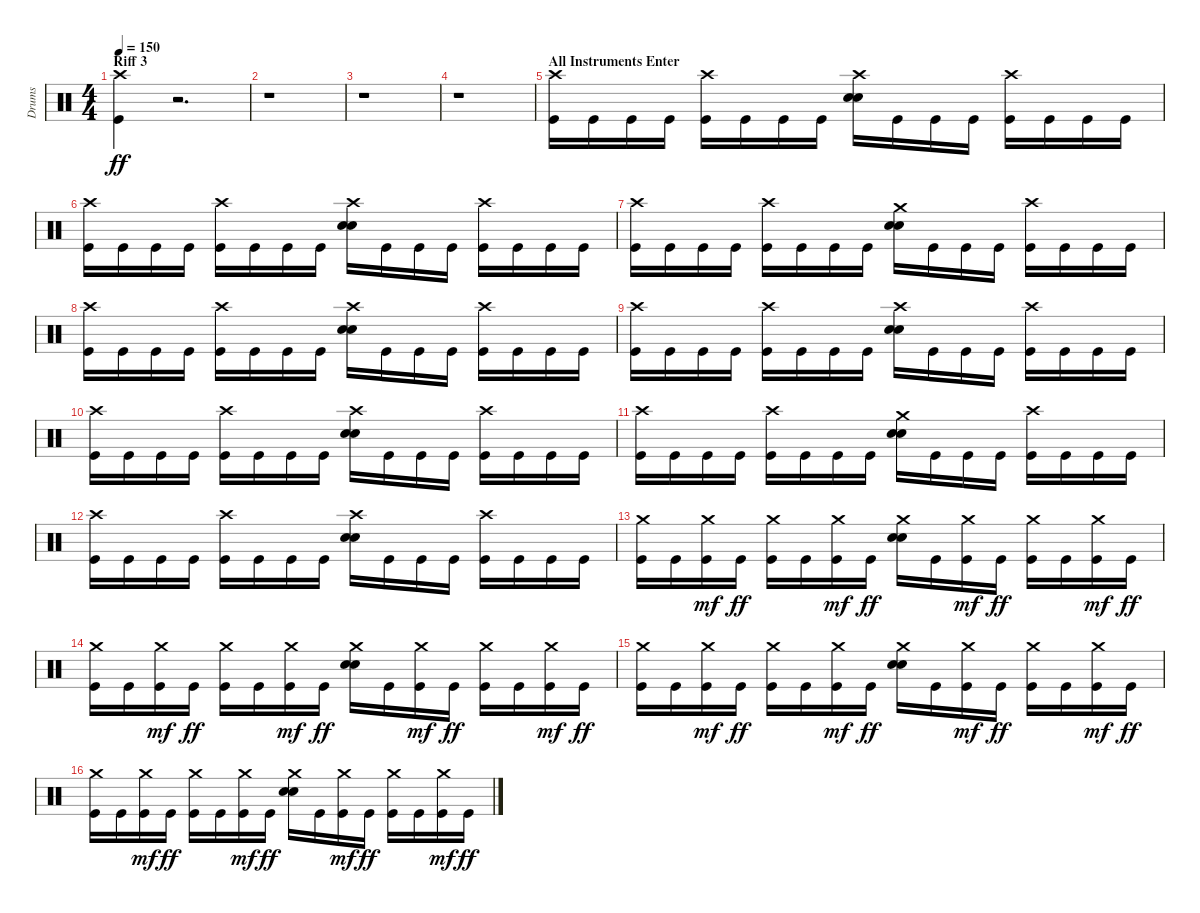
\track ("Drums" "Drums") {instrument percussion}
\staff {score}
\articulation defaults
\ts (4 4)
\section ("" "Riff 3")
\tempo 150
\clef neutral
\ks c
("Kick (hit)" "Crash high (hit)").4{dy ff} r.2{d} |
r.1 |
r.1 |
r.1 |
\section ("" "All Instruments Enter")
("Kick (hit)" "Crash high (hit)").16 "Kick (hit)".16 "Kick (hit)".16 "Kick (hit)".16 ("Kick (hit)" "Crash high (hit)").16 "Kick (hit)".16 "Kick (hit)".16 "Kick (hit)".16 ("Electric Snare (hit)" "Electric Snare (hit)" "Crash high (hit)").16 "Kick (hit)".16 "Kick (hit)".16 "Kick (hit)".16 ("Kick (hit)" "Crash high (hit)").16 "Kick (hit)".16 "Kick (hit)".16 "Kick (hit)".16 |
("Kick (hit)" "Crash high (hit)").16 "Kick (hit)".16 "Kick (hit)".16 "Kick (hit)".16 ("Kick (hit)" "Crash high (hit)").16 "Kick (hit)".16 "Kick (hit)".16 "Kick (hit)".16 ("Electric Snare (hit)" "Electric Snare (hit)" "Crash high (hit)").16 "Kick (hit)".16 "Kick (hit)".16 "Kick (hit)".16 ("Kick (hit)" "Crash high (hit)").16 "Kick (hit)".16 "Kick (hit)".16 "Kick (hit)".16 |
("Kick (hit)" "Crash high (hit)").16 "Kick (hit)".16 "Kick (hit)".16 "Kick (hit)".16 ("Kick (hit)" "Crash high (hit)").16 "Kick (hit)".16 "Kick (hit)".16 "Kick (hit)".16 ("Electric Snare (hit)" "Electric Snare (hit)" "Crash medium (hit)").16 "Kick (hit)".16 "Kick (hit)".16 "Kick (hit)".16 ("Kick (hit)" "Crash high (hit)").16 "Kick (hit)".16 "Kick (hit)".16 "Kick (hit)".16 |
("Kick (hit)" "Crash high (hit)").16 "Kick (hit)".16 "Kick (hit)".16 "Kick (hit)".16 ("Kick (hit)" "Crash high (hit)").16 "Kick (hit)".16 "Kick (hit)".16 "Kick (hit)".16 ("Electric Snare (hit)" "Electric Snare (hit)" "Crash high (hit)").16 "Kick (hit)".16 "Kick (hit)".16 "Kick (hit)".16 ("Kick (hit)" "Crash high (hit)").16 "Kick (hit)".16 "Kick (hit)".16 "Kick (hit)".16 |
("Kick (hit)" "Crash high (hit)").16 "Kick (hit)".16 "Kick (hit)".16 "Kick (hit)".16 ("Kick (hit)" "Crash high (hit)").16 "Kick (hit)".16 "Kick (hit)".16 "Kick (hit)".16 ("Electric Snare (hit)" "Electric Snare (hit)" "Crash high (hit)").16 "Kick (hit)".16 "Kick (hit)".16 "Kick (hit)".16 ("Kick (hit)" "Crash high (hit)").16 "Kick (hit)".16 "Kick (hit)".16 "Kick (hit)".16 |
("Kick (hit)" "Crash high (hit)").16 "Kick (hit)".16 "Kick (hit)".16 "Kick (hit)".16 ("Kick (hit)" "Crash high (hit)").16 "Kick (hit)".16 "Kick (hit)".16 "Kick (hit)".16 ("Electric Snare (hit)" "Electric Snare (hit)" "Crash high (hit)").16 "Kick (hit)".16 "Kick (hit)".16 "Kick (hit)".16 ("Kick (hit)" "Crash high (hit)").16 "Kick (hit)".16 "Kick (hit)".16 "Kick (hit)".16 |
("Kick (hit)" "Crash high (hit)").16 "Kick (hit)".16 "Kick (hit)".16 "Kick (hit)".16 ("Kick (hit)" "Crash high (hit)").16 "Kick (hit)".16 "Kick (hit)".16 "Kick (hit)".16 ("Electric Snare (hit)" "Electric Snare (hit)" "Crash medium (hit)").16 "Kick (hit)".16 "Kick (hit)".16 "Kick (hit)".16 ("Kick (hit)" "Crash high (hit)").16 "Kick (hit)".16 "Kick (hit)".16 "Kick (hit)".16 |
("Kick (hit)" "Crash high (hit)").16 "Kick (hit)".16 "Kick (hit)".16 "Kick (hit)".16 ("Kick (hit)" "Crash high (hit)").16 "Kick (hit)".16 "Kick (hit)".16 "Kick (hit)".16 ("Electric Snare (hit)" "Electric Snare (hit)" "Crash high (hit)").16 "Kick (hit)".16 "Kick (hit)".16 "Kick (hit)".16 ("Kick (hit)" "Crash high (hit)").16 "Kick (hit)".16 "Kick (hit)".16 "Kick (hit)".16 |
("Kick (hit)" "Crash medium (hit)").16 "Kick (hit)".16 ("Kick (hit)" "Crash medium (hit)").16{dy mf} "Kick (hit)".16{dy ff} ("Kick (hit)" "Crash medium (hit)").16 "Kick (hit)".16 ("Kick (hit)" "Crash medium (hit)").16{dy mf} "Kick (hit)".16{dy ff} ("Electric Snare (hit)" "Electric Snare (hit)" "Crash medium (hit)").16 "Kick (hit)".16 ("Kick (hit)" "Crash medium (hit)").16{dy mf} "Kick (hit)".16{dy ff} ("Kick (hit)" "Crash medium (hit)").16 "Kick (hit)".16 ("Kick (hit)" "Crash medium (hit)").16{dy mf} "Kick (hit)".16{dy ff} |
("Kick (hit)" "Crash medium (hit)").16 "Kick (hit)".16 ("Kick (hit)" "Crash medium (hit)").16{dy mf} "Kick (hit)".16{dy ff} ("Kick (hit)" "Crash medium (hit)").16 "Kick (hit)".16 ("Kick (hit)" "Crash medium (hit)").16{dy mf} "Kick (hit)".16{dy ff} ("Electric Snare (hit)" "Electric Snare (hit)" "Crash medium (hit)").16 "Kick (hit)".16 ("Kick (hit)" "Crash medium (hit)").16{dy mf} "Kick (hit)".16{dy ff} ("Kick (hit)" "Crash medium (hit)").16 "Kick (hit)".16 ("Kick (hit)" "Crash medium (hit)").16{dy mf} "Kick (hit)".16{dy ff} |
("Kick (hit)" "Crash medium (hit)").16 "Kick (hit)".16 ("Kick (hit)" "Crash medium (hit)").16{dy mf} "Kick (hit)".16{dy ff} ("Kick (hit)" "Crash medium (hit)").16 "Kick (hit)".16 ("Kick (hit)" "Crash medium (hit)").16{dy mf} "Kick (hit)".16{dy ff} ("Electric Snare (hit)" "Electric Snare (hit)" "Crash medium (hit)").16 "Kick (hit)".16 ("Kick (hit)" "Crash medium (hit)").16{dy mf} "Kick (hit)".16{dy ff} ("Kick (hit)" "Crash medium (hit)").16 "Kick (hit)".16 ("Kick (hit)" "Crash medium (hit)").16{dy mf} "Kick (hit)".16{dy ff} |
("Kick (hit)" "Crash medium (hit)").16 "Kick (hit)".16 ("Kick (hit)" "Crash medium (hit)").16{dy mf} "Kick (hit)".16{dy ff} ("Kick (hit)" "Crash medium (hit)").16 "Kick (hit)".16 ("Kick (hit)" "Crash medium (hit)").16{dy mf} "Kick (hit)".16{dy ff} ("Electric Snare (hit)" "Electric Snare (hit)" "Crash medium (hit)").16 "Kick (hit)".16 ("Kick (hit)" "Crash medium (hit)").16{dy mf} "Kick (hit)".16{dy ff} ("Kick (hit)" "Crash medium (hit)").16 "Kick (hit)".16 ("Kick (hit)" "Crash medium (hit)").16{dy mf} "Kick (hit)".16{dy ff}
